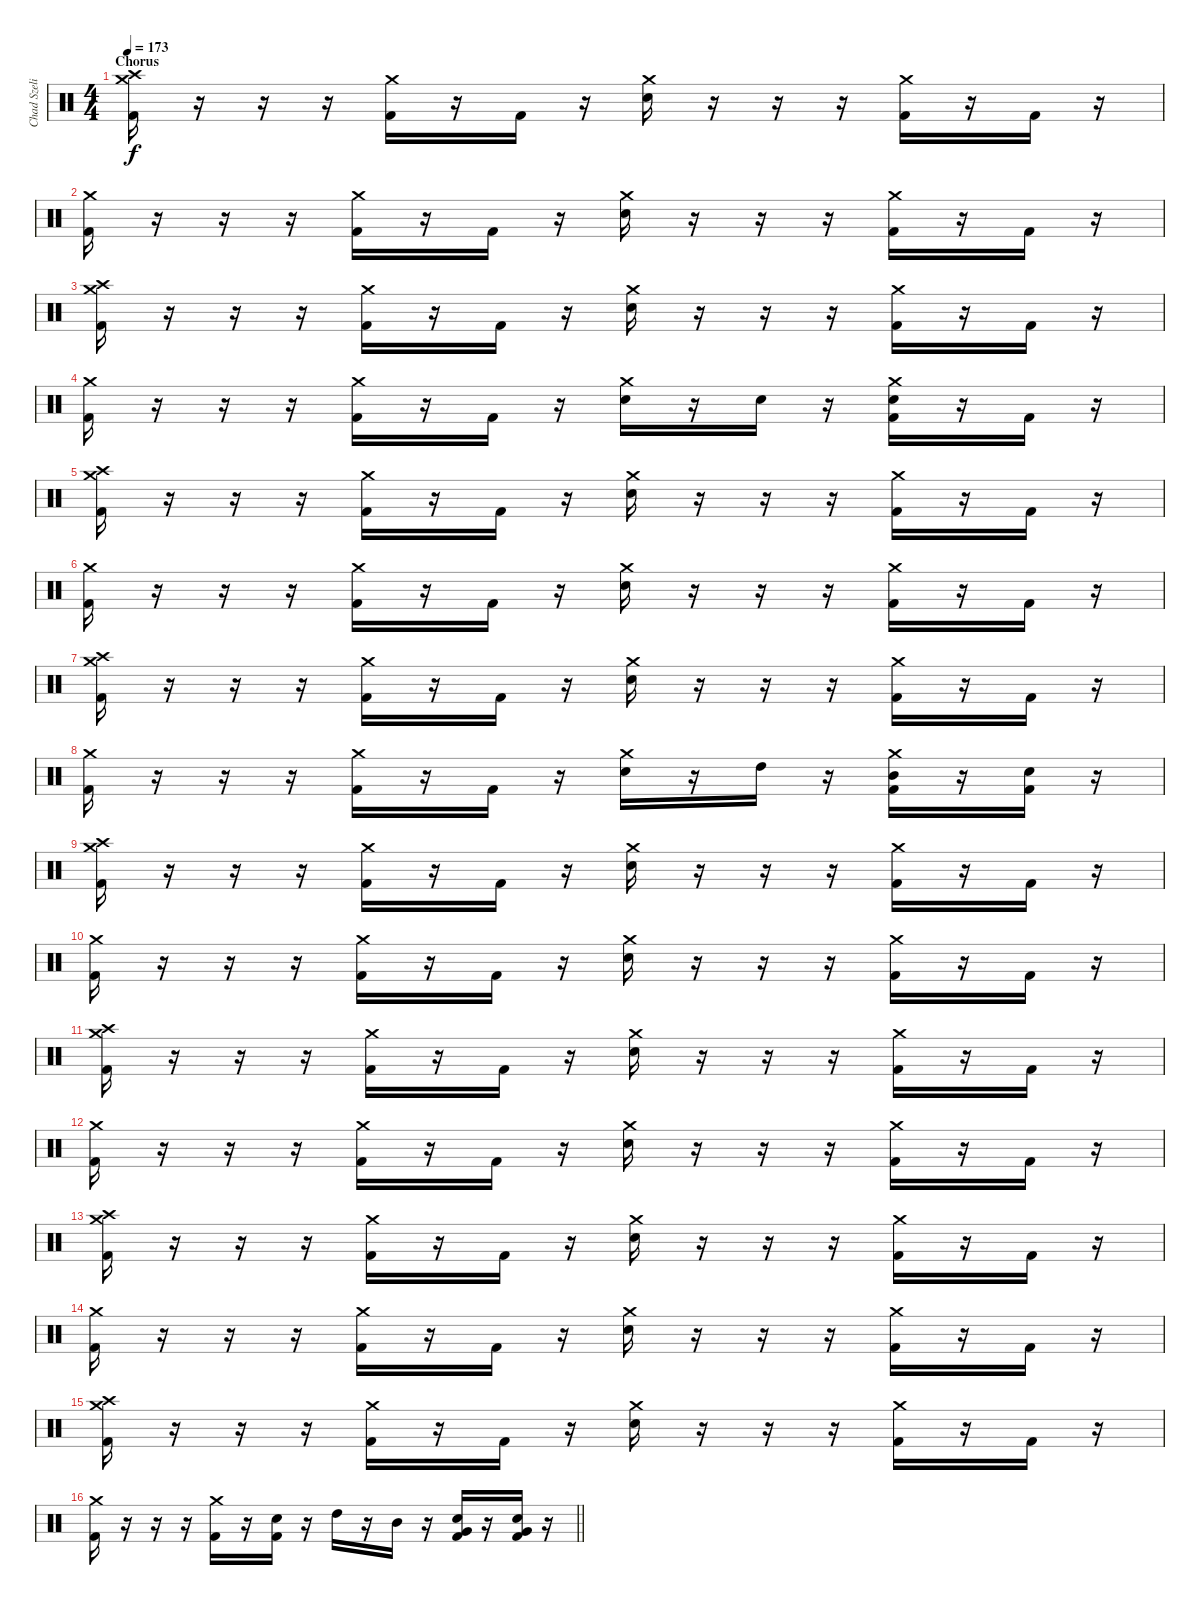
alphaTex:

\track ("Chad Szeliga" "Chad Szeli") {instrument percussion}
\staff {score}
\articulation defaults
\ts (4 4)
\section ("" "Chorus")
\tempo 173
\clef neutral
\ks c
("Crash medium (hit)" "Crash high (hit)" "Kick (hit) 2").16{dy f} r.16 r.16 r.16 ("Crash medium (hit)" "Kick (hit) 2").16 r.16 "Kick (hit) 2".16 r.16 ("Crash medium (hit)" "Electric Snare (hit)").16 r.16 r.16 r.16 ("Crash medium (hit)" "Kick (hit) 2").16 r.16 "Kick (hit) 2".16 r.16 |
("Crash medium (hit)" "Kick (hit) 2").16 r.16 r.16 r.16 ("Crash medium (hit)" "Kick (hit) 2").16 r.16 "Kick (hit) 2".16 r.16 ("Crash medium (hit)" "Electric Snare (hit)").16 r.16 r.16 r.16 ("Crash medium (hit)" "Kick (hit) 2").16 r.16 "Kick (hit) 2".16 r.16 |
("Crash medium (hit)" "Crash high (hit)" "Kick (hit) 2").16 r.16 r.16 r.16 ("Crash medium (hit)" "Kick (hit) 2").16 r.16 "Kick (hit) 2".16 r.16 ("Crash medium (hit)" "Electric Snare (hit)").16 r.16 r.16 r.16 ("Crash medium (hit)" "Kick (hit) 2").16 r.16 "Kick (hit) 2".16 r.16 |
("Crash medium (hit)" "Kick (hit) 2").16 r.16 r.16 r.16 ("Crash medium (hit)" "Kick (hit) 2").16 r.16 "Kick (hit) 2".16 r.16 ("Crash medium (hit)" "Electric Snare (hit)").16 r.16 "Electric Snare (hit)".16 r.16 ("Crash medium (hit)" "Electric Snare (hit)" "Kick (hit) 2").16 r.16 "Kick (hit) 2".16 r.16 |
("Crash medium (hit)" "Crash high (hit)" "Kick (hit) 2").16 r.16 r.16 r.16 ("Crash medium (hit)" "Kick (hit) 2").16 r.16 "Kick (hit) 2".16 r.16 ("Crash medium (hit)" "Electric Snare (hit)").16 r.16 r.16 r.16 ("Crash medium (hit)" "Kick (hit) 2").16 r.16 "Kick (hit) 2".16 r.16 |
("Crash medium (hit)" "Kick (hit) 2").16 r.16 r.16 r.16 ("Crash medium (hit)" "Kick (hit) 2").16 r.16 "Kick (hit) 2".16 r.16 ("Crash medium (hit)" "Electric Snare (hit)").16 r.16 r.16 r.16 ("Crash medium (hit)" "Kick (hit) 2").16 r.16 "Kick (hit) 2".16 r.16 |
("Crash medium (hit)" "Crash high (hit)" "Kick (hit) 2").16 r.16 r.16 r.16 ("Crash medium (hit)" "Kick (hit) 2").16 r.16 "Kick (hit) 2".16 r.16 ("Crash medium (hit)" "Electric Snare (hit)").16 r.16 r.16 r.16 ("Crash medium (hit)" "Kick (hit) 2").16 r.16 "Kick (hit) 2".16 r.16 |
("Crash medium (hit)" "Kick (hit) 2").16 r.16 r.16 r.16 ("Crash medium (hit)" "Kick (hit) 2").16 r.16 "Kick (hit) 2".16 r.16 ("Crash medium (hit)" "Electric Snare (hit)").16 r.16 "High Tom (hit)".16 r.16 ("Crash medium (hit)" "Mid Tom (hit)" "Kick (hit) 2").16 r.16 ("Electric Snare (hit)" "Kick (hit) 2").16 r.16 |
("Crash medium (hit)" "Crash high (hit)" "Kick (hit) 2").16 r.16 r.16 r.16 ("Crash medium (hit)" "Kick (hit) 2").16 r.16 "Kick (hit) 2".16 r.16 ("Crash medium (hit)" "Electric Snare (hit)").16 r.16 r.16 r.16 ("Crash medium (hit)" "Kick (hit) 2").16 r.16 "Kick (hit) 2".16 r.16 |
("Crash medium (hit)" "Kick (hit) 2").16 r.16 r.16 r.16 ("Crash medium (hit)" "Kick (hit) 2").16 r.16 "Kick (hit) 2".16 r.16 ("Crash medium (hit)" "Electric Snare (hit)").16 r.16 r.16 r.16 ("Crash medium (hit)" "Kick (hit) 2").16 r.16 "Kick (hit) 2".16 r.16 |
("Crash medium (hit)" "Crash high (hit)" "Kick (hit) 2").16 r.16 r.16 r.16 ("Crash medium (hit)" "Kick (hit) 2").16 r.16 "Kick (hit) 2".16 r.16 ("Crash medium (hit)" "Electric Snare (hit)").16 r.16 r.16 r.16 ("Crash medium (hit)" "Kick (hit) 2").16 r.16 "Kick (hit) 2".16 r.16 |
("Crash medium (hit)" "Kick (hit) 2").16 r.16 r.16 r.16 ("Crash medium (hit)" "Kick (hit) 2").16 r.16 "Kick (hit) 2".16 r.16 ("Crash medium (hit)" "Electric Snare (hit)").16 r.16 r.16 r.16 ("Crash medium (hit)" "Kick (hit) 2").16 r.16 "Kick (hit) 2".16 r.16 |
("Crash medium (hit)" "Crash high (hit)" "Kick (hit) 2").16 r.16 r.16 r.16 ("Crash medium (hit)" "Kick (hit) 2").16 r.16 "Kick (hit) 2".16 r.16 ("Crash medium (hit)" "Electric Snare (hit)").16 r.16 r.16 r.16 ("Crash medium (hit)" "Kick (hit) 2").16 r.16 "Kick (hit) 2".16 r.16 |
("Crash medium (hit)" "Kick (hit) 2").16 r.16 r.16 r.16 ("Crash medium (hit)" "Kick (hit) 2").16 r.16 "Kick (hit) 2".16 r.16 ("Crash medium (hit)" "Electric Snare (hit)").16 r.16 r.16 r.16 ("Crash medium (hit)" "Kick (hit) 2").16 r.16 "Kick (hit) 2".16 r.16 |
("Crash medium (hit)" "Crash high (hit)" "Kick (hit) 2").16 r.16 r.16 r.16 ("Crash medium (hit)" "Kick (hit) 2").16 r.16 "Kick (hit) 2".16 r.16 ("Crash medium (hit)" "Electric Snare (hit)").16 r.16 r.16 r.16 ("Crash medium (hit)" "Kick (hit) 2").16 r.16 "Kick (hit) 2".16 r.16 |
\barLineRight lightlight
("Crash medium (hit)" "Kick (hit) 2").16 r.16 r.16 r.16 ("Crash medium (hit)" "Kick (hit) 2").16 r.16 ("Electric Snare (hit)" "Kick (hit) 2").16 r.16 "High Tom (hit)".16 r.16 "Mid Tom (hit)".16 r.16 ("Electric Snare (hit)" "Very Low Tom (hit)" "Kick (hit) 2").16 r.16 ("Electric Snare (hit)" "Very Low Tom (hit)" "Kick (hit) 2").16 r.16
